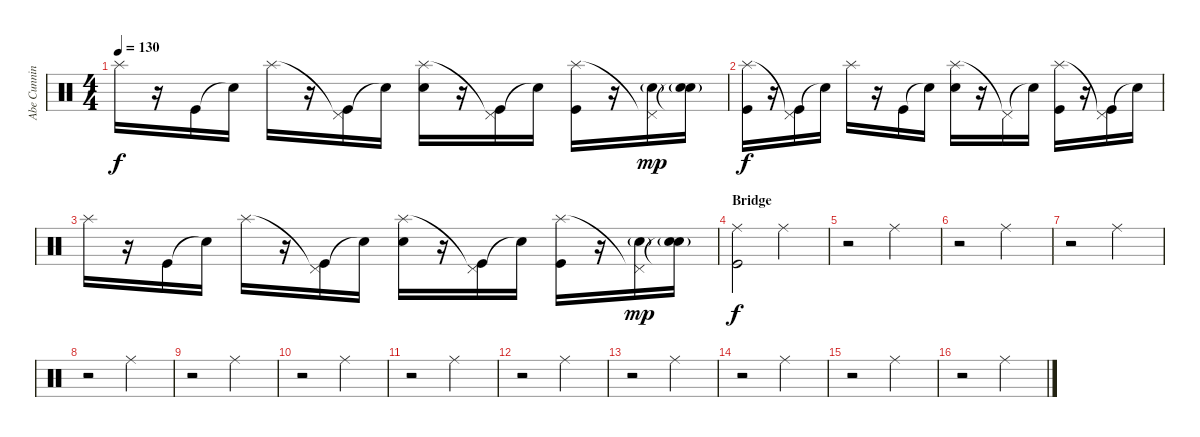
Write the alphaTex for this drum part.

\track ("Abe Cunningham" "Abe Cunnin") {instrument percussion}
\staff {score}
\articulation defaults
\ts (4 4)
\tempo 130
\clef neutral
\ks c "Splash (hit)".16{dy f}
r.16 "Kick (hit)".16 "Snare (hit)"{t}.16 "Splash (hit)".16 r.16 ("Pedal Hi-Hat (hit)"{t} "Kick (hit)").16 "Snare (hit)"{t}.16 ("Splash (hit)" "Electric Snare (hit)").16 r.16 ("Pedal Hi-Hat (hit)"{t} "Kick (hit)").16 "Snare (hit)"{t}.16 ("Splash (hit)" "Kick (hit)").16 r.16 ("Pedal Hi-Hat (hit)"{t} "Electric Snare (hit)"{g}).16{dy mp} ("Snare (hit)"{t} "Electric Snare (hit)"{g}).16 |
("Splash (hit)" "Kick (hit)").16{dy f} r.16 ("Pedal Hi-Hat (hit)"{t} "Kick (hit)").16 "Snare (hit)"{t}.16 "Splash (hit)".16 r.16 "Kick (hit)".16 "Snare (hit)"{t}.16 ("Splash (hit)" "Electric Snare (hit)").16 r.16 "Pedal Hi-Hat (hit)"{t}.16 "Snare (hit)"{t}.16 ("Splash (hit)" "Kick (hit)").16 r.16 ("Pedal Hi-Hat (hit)"{t} "Kick (hit)").16 "Snare (hit)"{t}.16 |
"Splash (hit)".16 r.16 "Kick (hit)".16 "Snare (hit)"{t}.16 "Splash (hit)".16 r.16 ("Pedal Hi-Hat (hit)"{t} "Kick (hit)").16 "Snare (hit)"{t}.16 ("Splash (hit)" "Electric Snare (hit)").16 r.16 ("Pedal Hi-Hat (hit)"{t} "Kick (hit)").16 "Snare (hit)"{t}.16 ("Splash (hit)" "Kick (hit)").16 r.16 ("Pedal Hi-Hat (hit)"{t} "Electric Snare (hit)"{g}).16{dy mp} ("Snare (hit)"{t} "Electric Snare (hit)"{g}).16 |
\section ("" "Bridge")
("Ride (middle)" "Kick (hit)").2{dy f} "Ride (middle)".2 |
r.2 "Ride (middle)".2 |
r.2 "Ride (middle)".2 |
r.2 "Ride (middle)".2 |
r.2 "Ride (middle)".2 |
r.2 "Ride (middle)".2 |
r.2 "Ride (middle)".2 |
r.2 "Ride (middle)".2 |
r.2 "Ride (middle)".2 |
r.2 "Ride (middle)".2 |
r.2 "Ride (middle)".2 |
r.2 "Ride (middle)".2 |
r.2 "Ride (middle)".2
